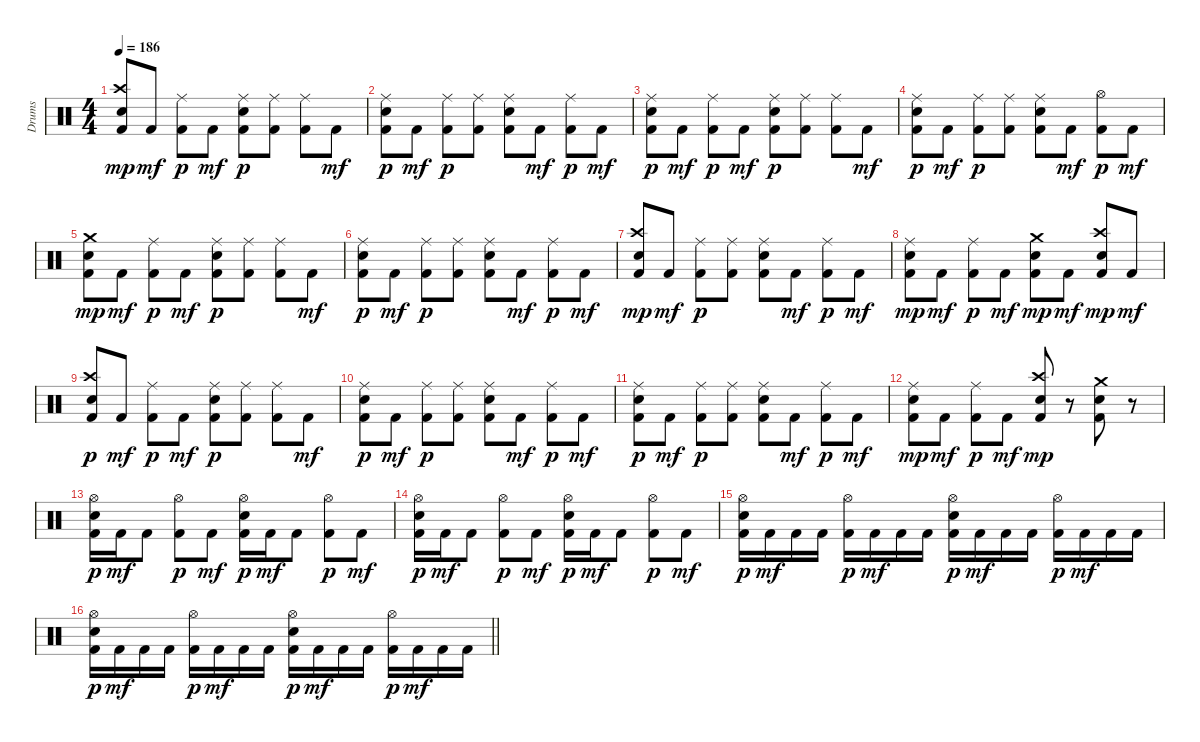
\track ("Drums" "Drums") {instrument percussion}
\staff {score}
\articulation defaults
\ts (4 4)
\tempo 186
\clef neutral
\ks c
("Kick (hit) 2" "Crash high (hit)" "Snare (hit) 2").8{dy mp} "Kick (hit) 2".8{dy mf} ("Kick (hit) 2" "Ride (middle)").8{dy p} "Kick (hit) 2".8{dy mf} ("Kick (hit) 2" "Ride (middle)" "Snare (hit) 2").8{dy p} ("Kick (hit) 2" "Ride (middle)").8 ("Kick (hit) 2" "Ride (middle)").8 "Kick (hit) 2".8{dy mf} |
("Kick (hit) 2" "Ride (middle)" "Snare (hit) 2").8{dy p} "Kick (hit) 2".8{dy mf} ("Kick (hit) 2" "Ride (middle)").8{dy p} ("Kick (hit) 2" "Ride (middle)").8 ("Kick (hit) 2" "Ride (middle)" "Snare (hit) 2").8 "Kick (hit) 2".8{dy mf} ("Kick (hit) 2" "Ride (middle)").8{dy p} "Kick (hit) 2".8{dy mf} |
("Kick (hit) 2" "Ride (middle)" "Snare (hit) 2").8{dy p} "Kick (hit) 2".8{dy mf} ("Kick (hit) 2" "Ride (middle)").8{dy p} "Kick (hit) 2".8{dy mf} ("Kick (hit) 2" "Ride (middle)" "Snare (hit) 2").8{dy p} ("Kick (hit) 2" "Ride (middle)").8 ("Kick (hit) 2" "Ride (middle)").8 "Kick (hit) 2".8{dy mf} |
("Kick (hit) 2" "Ride (middle)" "Snare (hit) 2").8{dy p} "Kick (hit) 2".8{dy mf} ("Kick (hit) 2" "Ride (middle)").8{dy p} ("Kick (hit) 2" "Ride (middle)").8 ("Kick (hit) 2" "Ride (middle)" "Snare (hit) 2").8 "Kick (hit) 2".8{dy mf} ("Kick (hit) 2" "Hi-Hat (open)").8{dy p} "Kick (hit) 2".8{dy mf} |
("Kick (hit) 2" "Crash medium (hit)" "Snare (hit) 2").8{dy mp} "Kick (hit) 2".8{dy mf} ("Kick (hit) 2" "Ride (middle)").8{dy p} "Kick (hit) 2".8{dy mf} ("Kick (hit) 2" "Ride (middle)" "Snare (hit) 2").8{dy p} ("Kick (hit) 2" "Ride (middle)").8 ("Kick (hit) 2" "Ride (middle)").8 "Kick (hit) 2".8{dy mf} |
("Kick (hit) 2" "Ride (middle)" "Snare (hit) 2").8{dy p} "Kick (hit) 2".8{dy mf} ("Kick (hit) 2" "Ride (middle)").8{dy p} ("Kick (hit) 2" "Ride (middle)").8 ("Kick (hit) 2" "Ride (middle)" "Snare (hit) 2").8 "Kick (hit) 2".8{dy mf} ("Kick (hit) 2" "Ride (middle)").8{dy p} "Kick (hit) 2".8{dy mf} |
("Kick (hit) 2" "Crash high (hit)" "Snare (hit) 2").8{dy mp} "Kick (hit) 2".8{dy mf} ("Kick (hit) 2" "Ride (middle)").8{dy p} ("Kick (hit) 2" "Ride (middle)").8 ("Kick (hit) 2" "Ride (middle)" "Snare (hit) 2").8 "Kick (hit) 2".8{dy mf} ("Kick (hit) 2" "Ride (middle)").8{dy p} "Kick (hit) 2".8{dy mf} |
("Kick (hit) 2" "Ride (middle)" "Snare (hit) 2").8{dy mp} "Kick (hit) 2".8{dy mf} ("Kick (hit) 2" "Ride (middle)").8{dy p} "Kick (hit) 2".8{dy mf} ("Kick (hit) 2" "Crash medium (hit)" "Snare (hit) 2").8{dy mp} "Kick (hit) 2".8{dy mf} ("Kick (hit) 2" "Crash high (hit)" "Snare (hit) 2").8{dy mp} "Kick (hit) 2".8{dy mf} |
("Kick (hit) 2" "Crash high (hit)" "Snare (hit) 2").8{dy p} "Kick (hit) 2".8{dy mf} ("Kick (hit) 2" "Ride (middle)").8{dy p} "Kick (hit) 2".8{dy mf} ("Kick (hit) 2" "Ride (middle)" "Snare (hit) 2").8{dy p} ("Kick (hit) 2" "Ride (middle)").8 ("Kick (hit) 2" "Ride (middle)").8 "Kick (hit) 2".8{dy mf} |
("Kick (hit) 2" "Ride (middle)" "Snare (hit) 2").8{dy p} "Kick (hit) 2".8{dy mf} ("Kick (hit) 2" "Ride (middle)").8{dy p} ("Kick (hit) 2" "Ride (middle)").8 ("Kick (hit) 2" "Ride (middle)" "Snare (hit) 2").8 "Kick (hit) 2".8{dy mf} ("Kick (hit) 2" "Ride (middle)").8{dy p} "Kick (hit) 2".8{dy mf} |
("Kick (hit) 2" "Ride (middle)" "Snare (hit) 2").8{dy p} "Kick (hit) 2".8{dy mf} ("Kick (hit) 2" "Ride (middle)").8{dy p} ("Kick (hit) 2" "Ride (middle)").8 ("Kick (hit) 2" "Ride (middle)" "Snare (hit) 2").8 "Kick (hit) 2".8{dy mf} ("Kick (hit) 2" "Ride (middle)").8{dy p} "Kick (hit) 2".8{dy mf} |
("Kick (hit) 2" "Ride (middle)" "Snare (hit) 2").8{dy mp} "Kick (hit) 2".8{dy mf} ("Kick (hit) 2" "Ride (middle)").8{dy p} "Kick (hit) 2".8{dy mf} ("Kick (hit) 2" "Crash high (hit)" "Snare (hit) 2").8{dy mp} r.8 ("Kick (hit) 2" "Crash medium (hit)" "Snare (hit) 2").8 r.8 |
("Kick (hit) 2" "Hi-Hat (open)" "Snare (hit) 2").16{dy p} "Kick (hit) 2".16{dy mf} "Kick (hit) 2".8 ("Kick (hit) 2" "Hi-Hat (open)").8{dy p} "Kick (hit) 2".8{dy mf} ("Kick (hit) 2" "Hi-Hat (open)" "Snare (hit) 2").16{dy p} "Kick (hit) 2".16{dy mf} "Kick (hit) 2".8 ("Kick (hit) 2" "Hi-Hat (open)").8{dy p} "Kick (hit) 2".8{dy mf} |
("Kick (hit) 2" "Hi-Hat (open)" "Snare (hit) 2").16{dy p} "Kick (hit) 2".16{dy mf} "Kick (hit) 2".8 ("Kick (hit) 2" "Hi-Hat (open)").8{dy p} "Kick (hit) 2".8{dy mf} ("Kick (hit) 2" "Hi-Hat (open)" "Snare (hit) 2").16{dy p} "Kick (hit) 2".16{dy mf} "Kick (hit) 2".8 ("Kick (hit) 2" "Hi-Hat (open)").8{dy p} "Kick (hit) 2".8{dy mf} |
("Kick (hit) 2" "Hi-Hat (open)" "Snare (hit) 2").16{dy p} "Kick (hit) 2".16{dy mf} "Kick (hit) 2".16 "Kick (hit) 2".16 ("Kick (hit) 2" "Hi-Hat (open)").16{dy p} "Kick (hit) 2".16{dy mf} "Kick (hit) 2".16 "Kick (hit) 2".16 ("Kick (hit) 2" "Hi-Hat (open)" "Snare (hit) 2").16{dy p} "Kick (hit) 2".16{dy mf} "Kick (hit) 2".16 "Kick (hit) 2".16 ("Kick (hit) 2" "Hi-Hat (open)").16{dy p} "Kick (hit) 2".16{dy mf} "Kick (hit) 2".16 "Kick (hit) 2".16 |
\barLineRight lightlight
("Kick (hit) 2" "Hi-Hat (open)" "Snare (hit) 2").16{dy p} "Kick (hit) 2".16{dy mf} "Kick (hit) 2".16 "Kick (hit) 2".16 ("Kick (hit) 2" "Hi-Hat (open)").16{dy p} "Kick (hit) 2".16{dy mf} "Kick (hit) 2".16 "Kick (hit) 2".16 ("Kick (hit) 2" "Hi-Hat (open)" "Snare (hit) 2").16{dy p} "Kick (hit) 2".16{dy mf} "Kick (hit) 2".16 "Kick (hit) 2".16 ("Kick (hit) 2" "Hi-Hat (open)").16{dy p} "Kick (hit) 2".16{dy mf} "Kick (hit) 2".16 "Kick (hit) 2".16
